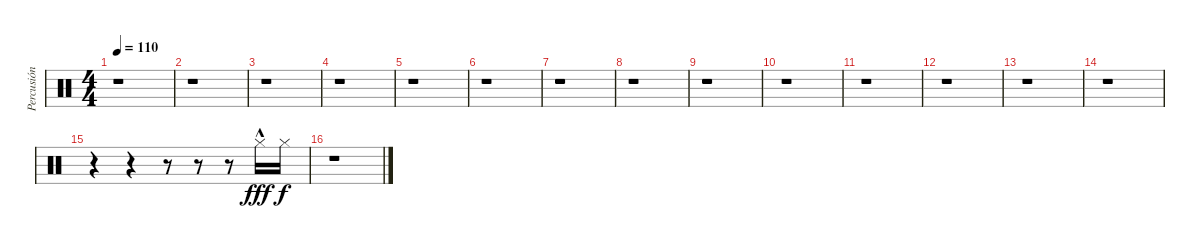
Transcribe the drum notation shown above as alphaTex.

\track ("Percusión" "Percusión") {instrument percussion}
\staff {score}
\articulation defaults
\ts (4 4)
\tempo 110
\clef neutral
\ks c
r.1{dy f} |
r.1 |
r.1 |
r.1 |
r.1 |
r.1 |
r.1 |
r.1 |
r.1 |
r.1 |
r.1 |
r.1 |
r.1 |
r.1 |
r.4 r.4 r.8 r.8 r.8 "Hi-Hat (closed)"{hac}.16{dy fff} "Hi-Hat (closed)".16{dy f} |
r.1
